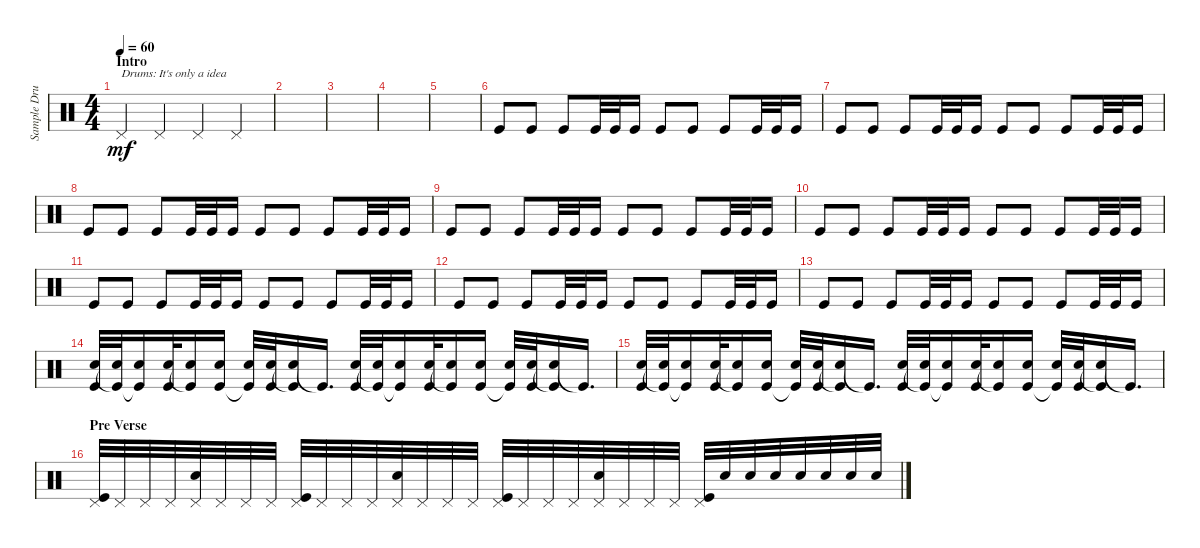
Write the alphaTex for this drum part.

\track ("Sample Drums" "Sample Dru") {instrument percussion}
\staff {score}
\articulation defaults
\ts (4 4)
\section ("" "Intro")
\tempo 60
\clef neutral
\ks c "Pedal Hi-Hat (hit)".4{txt "Drums: It's only a idea" dy mf} "Pedal Hi-Hat (hit)".4 "Pedal Hi-Hat (hit)".4 "Pedal Hi-Hat (hit)".4
|
|
|
|
|
"Kick (hit)".8 "Kick (hit)".8 "Kick (hit)".8 "Kick (hit)".32 "Kick (hit)".32 "Kick (hit)".16 "Kick (hit)".8 "Kick (hit)".8 "Kick (hit)".8 "Kick (hit)".32 "Kick (hit)".32 "Kick (hit)".16 |
"Kick (hit)".8 "Kick (hit)".8 "Kick (hit)".8 "Kick (hit)".32 "Kick (hit)".32 "Kick (hit)".16 "Kick (hit)".8 "Kick (hit)".8 "Kick (hit)".8 "Kick (hit)".32 "Kick (hit)".32 "Kick (hit)".16 |
"Kick (hit)".8 "Kick (hit)".8 "Kick (hit)".8 "Kick (hit)".32 "Kick (hit)".32 "Kick (hit)".16 "Kick (hit)".8 "Kick (hit)".8 "Kick (hit)".8 "Kick (hit)".32 "Kick (hit)".32 "Kick (hit)".16 |
"Kick (hit)".8 "Kick (hit)".8 "Kick (hit)".8 "Kick (hit)".32 "Kick (hit)".32 "Kick (hit)".16 "Kick (hit)".8 "Kick (hit)".8 "Kick (hit)".8 "Kick (hit)".32 "Kick (hit)".32 "Kick (hit)".16 |
"Kick (hit)".8 "Kick (hit)".8 "Kick (hit)".8 "Kick (hit)".32 "Kick (hit)".32 "Kick (hit)".16 "Kick (hit)".8 "Kick (hit)".8 "Kick (hit)".8 "Kick (hit)".32 "Kick (hit)".32 "Kick (hit)".16 |
"Kick (hit)".8 "Kick (hit)".8 "Kick (hit)".8 "Kick (hit)".32 "Kick (hit)".32 "Kick (hit)".16 "Kick (hit)".8 "Kick (hit)".8 "Kick (hit)".8 "Kick (hit)".32 "Kick (hit)".32 "Kick (hit)".16 |
"Kick (hit)".8 "Kick (hit)".8 "Kick (hit)".8 "Kick (hit)".32 "Kick (hit)".32 "Kick (hit)".16 "Kick (hit)".8 "Kick (hit)".8 "Kick (hit)".8 "Kick (hit)".32 "Kick (hit)".32 "Kick (hit)".16 |
"Kick (hit)".8 "Kick (hit)".8 "Kick (hit)".8 "Kick (hit)".32 "Kick (hit)".32 "Kick (hit)".16 "Kick (hit)".8 "Kick (hit)".8 "Kick (hit)".8 "Kick (hit)".32 "Kick (hit)".32 "Kick (hit)".16 |
("Kick (hit)" "Snare (hit) 2").32 ("Snare (hit) 2" "Kick (hit)"{t}).32 ("Snare (hit) 2" "Kick (hit)"{t}).16 ("Kick (hit)" "Snare (hit) 2").32 ("Snare (hit) 2" "Kick (hit)"{t}).16 ("Kick (hit)" "Snare (hit) 2").16 ("Kick (hit)"{t} "Snare (hit) 2").32 ("Kick (hit)" "Snare (hit) 2").32 ("Snare (hit) 2" "Kick (hit)"{t}).16 "Kick (hit)"{t}.16{d} ("Kick (hit)" "Snare (hit) 2").32 ("Snare (hit) 2" "Kick (hit)"{t}).32 ("Snare (hit) 2" "Kick (hit)"{t}).16 ("Kick (hit)" "Snare (hit) 2").32 ("Snare (hit) 2" "Kick (hit)"{t}).16 ("Kick (hit)" "Snare (hit) 2").16 ("Kick (hit)"{t} "Snare (hit) 2").32 ("Kick (hit)" "Snare (hit) 2").32 ("Snare (hit) 2" "Kick (hit)"{t}).16 "Kick (hit)"{t}.16{d} |
("Kick (hit)" "Snare (hit) 2").32 ("Snare (hit) 2" "Kick (hit)"{t}).32 ("Snare (hit) 2" "Kick (hit)"{t}).16 ("Kick (hit)" "Snare (hit) 2").32 ("Snare (hit) 2" "Kick (hit)"{t}).16 ("Kick (hit)" "Snare (hit) 2").16 ("Kick (hit)"{t} "Snare (hit) 2").32 ("Kick (hit)" "Snare (hit) 2").32 ("Snare (hit) 2" "Kick (hit)"{t}).16 "Kick (hit)"{t}.16{d} ("Kick (hit)" "Snare (hit) 2").32 ("Snare (hit) 2" "Kick (hit)"{t}).32 ("Snare (hit) 2" "Kick (hit)"{t}).16 ("Kick (hit)" "Snare (hit) 2").32 ("Snare (hit) 2" "Kick (hit)"{t}).16 ("Kick (hit)" "Snare (hit) 2").16 ("Kick (hit)"{t} "Snare (hit) 2").32 ("Kick (hit)" "Snare (hit) 2").32 ("Snare (hit) 2" "Kick (hit)"{t}).16 "Kick (hit)"{t}.16{d} |
\section ("" "Pre Verse")
("Pedal Hi-Hat (hit)" "Kick (hit)").32 "Pedal Hi-Hat (hit)".32 "Pedal Hi-Hat (hit)".32 "Pedal Hi-Hat (hit)".32 ("Pedal Hi-Hat (hit)" "Snare (hit) 2").32 "Pedal Hi-Hat (hit)".32 "Pedal Hi-Hat (hit)".32 "Pedal Hi-Hat (hit)".32 ("Pedal Hi-Hat (hit)" "Kick (hit)").32 "Pedal Hi-Hat (hit)".32 "Pedal Hi-Hat (hit)".32 "Pedal Hi-Hat (hit)".32 ("Pedal Hi-Hat (hit)" "Snare (hit) 2").32 "Pedal Hi-Hat (hit)".32 "Pedal Hi-Hat (hit)".32 "Pedal Hi-Hat (hit)".32 ("Pedal Hi-Hat (hit)" "Kick (hit)").32 "Pedal Hi-Hat (hit)".32 "Pedal Hi-Hat (hit)".32 "Pedal Hi-Hat (hit)".32 ("Pedal Hi-Hat (hit)" "Snare (hit) 2").32 "Pedal Hi-Hat (hit)".32 "Pedal Hi-Hat (hit)".32 "Pedal Hi-Hat (hit)".32 ("Pedal Hi-Hat (hit)" "Kick (hit)").32 "Snare (hit) 2".32 "Snare (hit) 2".32 "Snare (hit) 2".32 "Snare (hit) 2".32 "Snare (hit) 2".32 "Snare (hit) 2".32 "Snare (hit) 2".32
